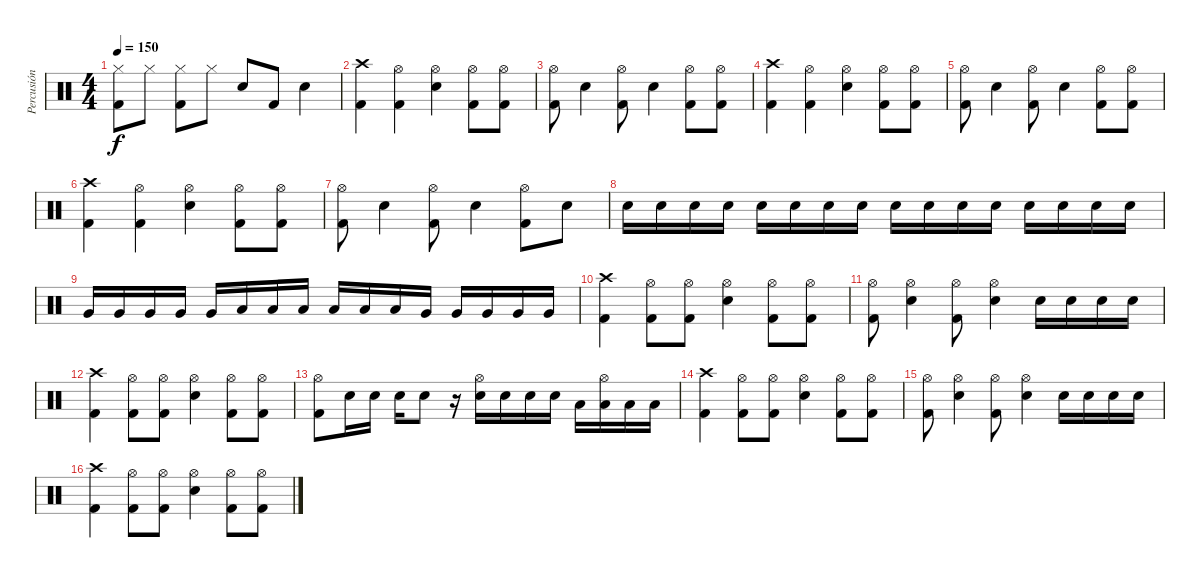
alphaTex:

\track ("Percusión" "Percusión") {instrument percussion}
\staff {score}
\articulation defaults
\ts (4 4)
\tempo 150
\clef neutral
\ks c
("Hi-Hat (closed)" "Kick (hit) 2").8{dy f} "Hi-Hat (closed)".8 ("Hi-Hat (closed)" "Kick (hit) 2").8 "Hi-Hat (closed)".8 "Electric Snare (hit)".8 "Kick (hit) 2".8 "Electric Snare (hit)".4 |
("Crash high (hit)" "Kick (hit) 2").4 ("Hi-Hat (open)" "Kick (hit) 2").4 ("Hi-Hat (open)" "Electric Snare (hit)").4 ("Hi-Hat (open)" "Kick (hit) 2").8 ("Hi-Hat (open)" "Kick (hit) 2").8 |
("Hi-Hat (open)" "Kick (hit) 2").8 "Electric Snare (hit)".4 ("Hi-Hat (open)" "Kick (hit) 2").8 "Electric Snare (hit)".4 ("Hi-Hat (open)" "Kick (hit) 2").8 ("Hi-Hat (open)" "Kick (hit) 2").8 |
("Crash high (hit)" "Kick (hit) 2").4 ("Hi-Hat (open)" "Kick (hit) 2").4 ("Hi-Hat (open)" "Electric Snare (hit)").4 ("Hi-Hat (open)" "Kick (hit) 2").8 ("Hi-Hat (open)" "Kick (hit) 2").8 |
("Hi-Hat (open)" "Kick (hit) 2").8 "Electric Snare (hit)".4 ("Hi-Hat (open)" "Kick (hit) 2").8 "Electric Snare (hit)".4 ("Hi-Hat (open)" "Kick (hit) 2").8 ("Hi-Hat (open)" "Kick (hit) 2").8 |
("Crash high (hit)" "Kick (hit) 2").4 ("Hi-Hat (open)" "Kick (hit) 2").4 ("Hi-Hat (open)" "Electric Snare (hit)").4 ("Hi-Hat (open)" "Kick (hit) 2").8 ("Hi-Hat (open)" "Kick (hit) 2").8 |
("Hi-Hat (open)" "Kick (hit) 2").8 "Electric Snare (hit)".4 ("Hi-Hat (open)" "Kick (hit) 2").8 "Electric Snare (hit)".4 ("Hi-Hat (open)" "Kick (hit) 2").8 "Electric Snare (hit)".8 |
"Snare (hit) 2".16 "Snare (hit) 2".16 "Snare (hit) 2".16 "Snare (hit) 2".16 "Electric Snare (hit)".16 "Electric Snare (hit)".16 "Electric Snare (hit)".16 "Electric Snare (hit)".16 "Snare (hit) 2".16 "Snare (hit) 2".16 "Snare (hit) 2".16 "Snare (hit) 2".16 "Electric Snare (hit)".16 "Electric Snare (hit)".16 "Electric Snare (hit)".16 "Electric Snare (hit)".16 |
"Very Low Tom (hit)".16 "Very Low Tom (hit)".16 "Very Low Tom (hit)".16 "Very Low Tom (hit)".16 "Very Low Tom (hit)".16 "Low Tom (hit)".16 "Low Tom (hit)".16 "Low Tom (hit)".16 "Low Tom (hit)".16 "Low Tom (hit)".16 "Low Tom (hit)".16 "Very Low Tom (hit)".16 "Very Low Tom (hit)".16 "Very Low Tom (hit)".16 "Very Low Tom (hit)".16 "Very Low Tom (hit)".16 |
("Crash high (hit)" "Kick (hit) 2").4 ("Hi-Hat (open)" "Kick (hit) 2").8 ("Hi-Hat (open)" "Kick (hit) 2").8 ("Hi-Hat (open)" "Electric Snare (hit)").4 ("Hi-Hat (open)" "Kick (hit) 2").8 ("Hi-Hat (open)" "Kick (hit) 2").8 |
("Hi-Hat (open)" "Kick (hit) 2").8 ("Hi-Hat (open)" "Electric Snare (hit)").4 ("Hi-Hat (open)" "Kick (hit) 2").8 ("Hi-Hat (open)" "Electric Snare (hit)").4 "Electric Snare (hit)".16 "Electric Snare (hit)".16 "Electric Snare (hit)".16 "Electric Snare (hit)".16 |
("Crash high (hit)" "Kick (hit) 2").4 ("Hi-Hat (open)" "Kick (hit) 2").8 ("Hi-Hat (open)" "Kick (hit) 2").8 ("Hi-Hat (open)" "Electric Snare (hit)").4 ("Hi-Hat (open)" "Kick (hit) 2").8 ("Hi-Hat (open)" "Kick (hit) 2").8 |
("Hi-Hat (open)" "Kick (hit) 2").8 "Electric Snare (hit)".16 "Electric Snare (hit)".16 "Electric Snare (hit)".16 "Electric Snare (hit)".8 r.16 ("Hi-Hat (open)" "Electric Snare (hit)").16 "Electric Snare (hit)".16 "Electric Snare (hit)".16 "Electric Snare (hit)".16 "Low Tom (hit)".16 ("Hi-Hat (open)" "Low Tom (hit)").16 "Low Tom (hit)".16 "Low Tom (hit)".16 |
("Crash high (hit)" "Kick (hit) 2").4 ("Hi-Hat (open)" "Kick (hit) 2").8 ("Hi-Hat (open)" "Kick (hit) 2").8 ("Hi-Hat (open)" "Electric Snare (hit)").4 ("Hi-Hat (open)" "Kick (hit) 2").8 ("Hi-Hat (open)" "Kick (hit) 2").8 |
("Hi-Hat (open)" "Kick (hit) 2").8 ("Hi-Hat (open)" "Electric Snare (hit)").4 ("Hi-Hat (open)" "Kick (hit) 2").8 ("Hi-Hat (open)" "Electric Snare (hit)").4 "Electric Snare (hit)".16 "Electric Snare (hit)".16 "Electric Snare (hit)".16 "Electric Snare (hit)".16 |
("Crash high (hit)" "Kick (hit) 2").4 ("Hi-Hat (open)" "Kick (hit) 2").8 ("Hi-Hat (open)" "Kick (hit) 2").8 ("Hi-Hat (open)" "Electric Snare (hit)").4 ("Hi-Hat (open)" "Kick (hit) 2").8 ("Hi-Hat (open)" "Kick (hit) 2").8
